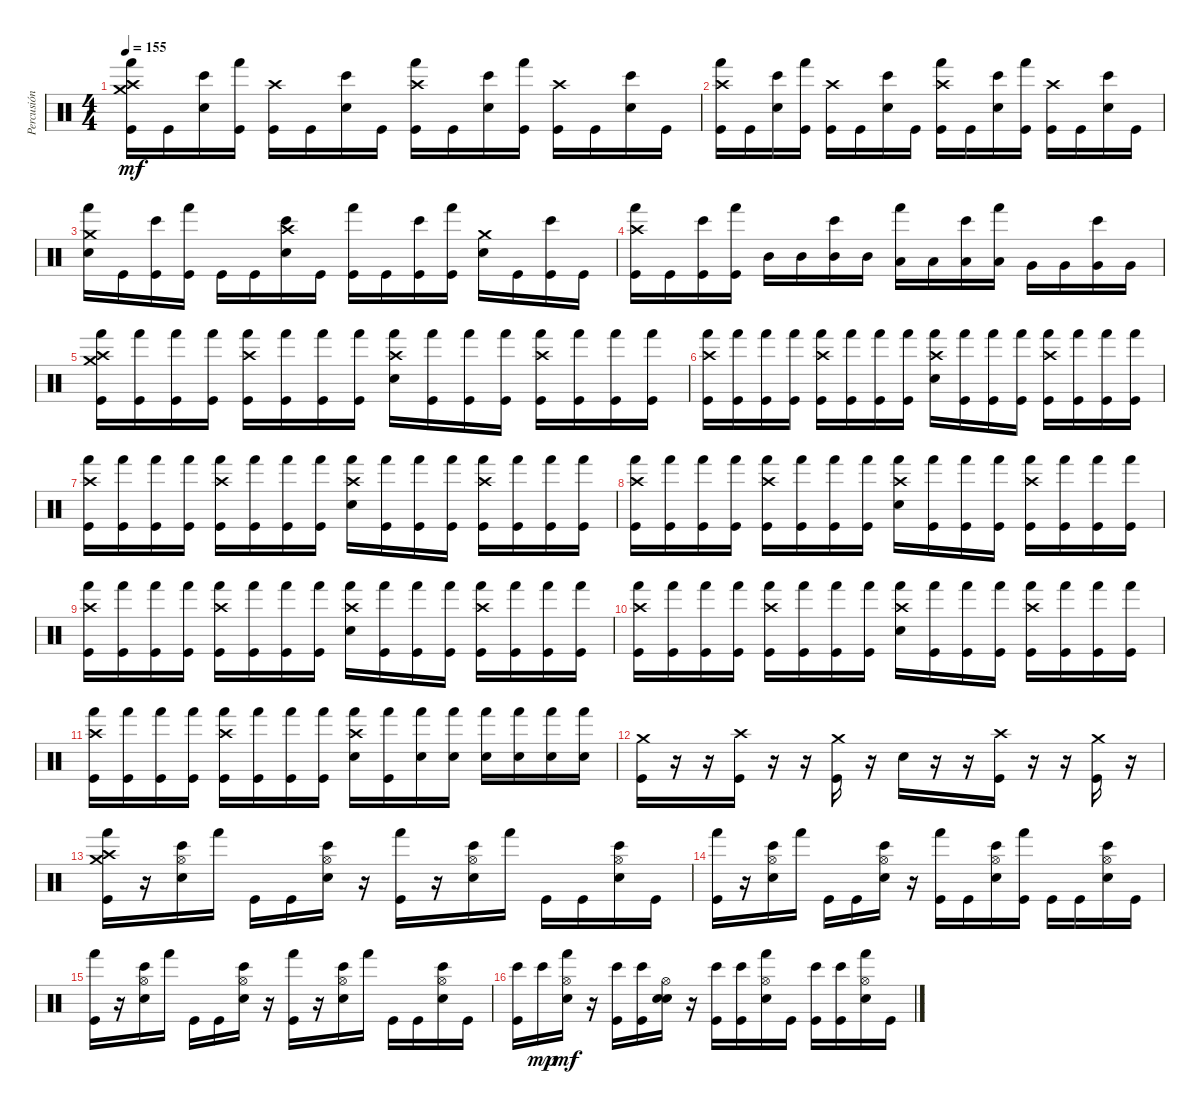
\track ("Percusión" "Percusión") {instrument percussion}
\staff {score}
\articulation defaults
\ts (4 4)
\tempo 155
\clef neutral
\ks c
("Hand (hit)" "Crash medium (hit)" "Crash high (hit)" "Kick (hit)").16{dy mf} "Kick (hit)".16 ("Bongo High (hit)" "Electric Snare (hit)").16 ("Hand (hit)" "Kick (hit)").16 ("Crash high (hit)" "Kick (hit)").16 "Kick (hit)".16 ("Bongo High (hit)" "Electric Snare (hit)").16 "Kick (hit)".16 ("Hand (hit)" "Crash high (hit)" "Kick (hit)").16 "Kick (hit)".16 ("Bongo High (hit)" "Electric Snare (hit)").16 ("Hand (hit)" "Kick (hit)").16 ("Crash high (hit)" "Kick (hit)").16 "Kick (hit)".16 ("Bongo High (hit)" "Electric Snare (hit)").16 "Kick (hit)".16 |
("Hand (hit)" "Crash high (hit)" "Kick (hit)").16 "Kick (hit)".16 ("Bongo High (hit)" "Electric Snare (hit)").16 ("Hand (hit)" "Kick (hit)").16 ("Crash high (hit)" "Kick (hit)").16 "Kick (hit)".16 ("Bongo High (hit)" "Electric Snare (hit)").16 "Kick (hit)".16 ("Hand (hit)" "Crash high (hit)" "Kick (hit)").16 "Kick (hit)".16 ("Bongo High (hit)" "Electric Snare (hit)").16 ("Hand (hit)" "Kick (hit)").16 ("Crash high (hit)" "Kick (hit)").16 "Kick (hit)".16 ("Bongo High (hit)" "Electric Snare (hit)").16 "Kick (hit)".16 |
("Hand (hit)" "Crash medium (hit)" "Electric Snare (hit)").16 "Kick (hit)".16 ("Bongo High (hit)" "Kick (hit)").16 ("Hand (hit)" "Kick (hit)").16 "Kick (hit)".16 "Kick (hit)".16 ("Bongo High (hit)" "Crash high (hit)" "Electric Snare (hit)").16 "Kick (hit)".16 ("Hand (hit)" "Kick (hit)").16 "Kick (hit)".16 ("Bongo High (hit)" "Kick (hit)").16 ("Hand (hit)" "Kick (hit)").16 ("Crash medium (hit)" "Electric Snare (hit)").16 "Kick (hit)".16 ("Bongo High (hit)" "Kick (hit)").16 "Kick (hit)".16 |
("Hand (hit)" "Crash high (hit)" "Kick (hit)").16 "Kick (hit)".16 ("Bongo High (hit)" "Kick (hit)").16 ("Hand (hit)" "Kick (hit)").16 "Mid Tom (hit)".16 "Mid Tom (hit)".16 ("Bongo High (hit)" "Mid Tom (hit)").16 "Mid Tom (hit)".16 ("Hand (hit)" "Low Tom (hit)").16 "Low Tom (hit)".16 ("Bongo High (hit)" "Low Tom (hit)").16 ("Hand (hit)" "Low Tom (hit)").16 "Very Low Tom (hit)".16 "Very Low Tom (hit)".16 ("Bongo High (hit)" "Very Low Tom (hit)").16 "Very Low Tom (hit)".16 |
("Hand (hit)" "Crash medium (hit)" "Crash high (hit)" "Kick (hit)").16 ("Hand (hit)" "Kick (hit)").16 ("Hand (hit)" "Kick (hit)").16 ("Hand (hit)" "Kick (hit)").16 ("Hand (hit)" "Crash high (hit)" "Kick (hit)").16 ("Hand (hit)" "Kick (hit)").16 ("Hand (hit)" "Kick (hit)").16 ("Hand (hit)" "Kick (hit)").16 ("Hand (hit)" "Crash high (hit)" "Electric Snare (hit)").16 ("Hand (hit)" "Kick (hit)").16 ("Hand (hit)" "Kick (hit)").16 ("Hand (hit)" "Kick (hit)").16 ("Hand (hit)" "Crash high (hit)" "Kick (hit)").16 ("Hand (hit)" "Kick (hit)").16 ("Hand (hit)" "Kick (hit)").16 ("Hand (hit)" "Kick (hit)").16 |
("Hand (hit)" "Crash high (hit)" "Kick (hit)").16 ("Hand (hit)" "Kick (hit)").16 ("Hand (hit)" "Kick (hit)").16 ("Hand (hit)" "Kick (hit)").16 ("Hand (hit)" "Crash high (hit)" "Kick (hit)").16 ("Hand (hit)" "Kick (hit)").16 ("Hand (hit)" "Kick (hit)").16 ("Hand (hit)" "Kick (hit)").16 ("Hand (hit)" "Crash high (hit)" "Electric Snare (hit)").16 ("Hand (hit)" "Kick (hit)").16 ("Hand (hit)" "Kick (hit)").16 ("Hand (hit)" "Kick (hit)").16 ("Hand (hit)" "Crash high (hit)" "Kick (hit)").16 ("Hand (hit)" "Kick (hit)").16 ("Hand (hit)" "Kick (hit)").16 ("Hand (hit)" "Kick (hit)").16 |
("Hand (hit)" "Crash high (hit)" "Kick (hit)").16 ("Hand (hit)" "Kick (hit)").16 ("Hand (hit)" "Kick (hit)").16 ("Hand (hit)" "Kick (hit)").16 ("Hand (hit)" "Crash high (hit)" "Kick (hit)").16 ("Hand (hit)" "Kick (hit)").16 ("Hand (hit)" "Kick (hit)").16 ("Hand (hit)" "Kick (hit)").16 ("Hand (hit)" "Crash high (hit)" "Electric Snare (hit)").16 ("Hand (hit)" "Kick (hit)").16 ("Hand (hit)" "Kick (hit)").16 ("Hand (hit)" "Kick (hit)").16 ("Hand (hit)" "Crash high (hit)" "Kick (hit)").16 ("Hand (hit)" "Kick (hit)").16 ("Hand (hit)" "Kick (hit)").16 ("Hand (hit)" "Kick (hit)").16 |
("Hand (hit)" "Crash high (hit)" "Kick (hit)").16 ("Hand (hit)" "Kick (hit)").16 ("Hand (hit)" "Kick (hit)").16 ("Hand (hit)" "Kick (hit)").16 ("Hand (hit)" "Crash high (hit)" "Kick (hit)").16 ("Hand (hit)" "Kick (hit)").16 ("Hand (hit)" "Kick (hit)").16 ("Hand (hit)" "Kick (hit)").16 ("Hand (hit)" "Crash high (hit)" "Electric Snare (hit)").16 ("Hand (hit)" "Kick (hit)").16 ("Hand (hit)" "Kick (hit)").16 ("Hand (hit)" "Kick (hit)").16 ("Hand (hit)" "Crash high (hit)" "Kick (hit)").16 ("Hand (hit)" "Kick (hit)").16 ("Hand (hit)" "Kick (hit)").16 ("Hand (hit)" "Kick (hit)").16 |
("Hand (hit)" "Crash high (hit)" "Kick (hit)").16 ("Hand (hit)" "Kick (hit)").16 ("Hand (hit)" "Kick (hit)").16 ("Hand (hit)" "Kick (hit)").16 ("Hand (hit)" "Crash high (hit)" "Kick (hit)").16 ("Hand (hit)" "Kick (hit)").16 ("Hand (hit)" "Kick (hit)").16 ("Hand (hit)" "Kick (hit)").16 ("Hand (hit)" "Crash high (hit)" "Electric Snare (hit)").16 ("Hand (hit)" "Kick (hit)").16 ("Hand (hit)" "Kick (hit)").16 ("Hand (hit)" "Kick (hit)").16 ("Hand (hit)" "Crash high (hit)" "Kick (hit)").16 ("Hand (hit)" "Kick (hit)").16 ("Hand (hit)" "Kick (hit)").16 ("Hand (hit)" "Kick (hit)").16 |
("Hand (hit)" "Crash high (hit)" "Kick (hit)").16 ("Hand (hit)" "Kick (hit)").16 ("Hand (hit)" "Kick (hit)").16 ("Hand (hit)" "Kick (hit)").16 ("Hand (hit)" "Crash high (hit)" "Kick (hit)").16 ("Hand (hit)" "Kick (hit)").16 ("Hand (hit)" "Kick (hit)").16 ("Hand (hit)" "Kick (hit)").16 ("Hand (hit)" "Crash high (hit)" "Electric Snare (hit)").16 ("Hand (hit)" "Kick (hit)").16 ("Hand (hit)" "Kick (hit)").16 ("Hand (hit)" "Kick (hit)").16 ("Hand (hit)" "Crash high (hit)" "Kick (hit)").16 ("Hand (hit)" "Kick (hit)").16 ("Hand (hit)" "Kick (hit)").16 ("Hand (hit)" "Kick (hit)").16 |
("Hand (hit)" "Crash high (hit)" "Kick (hit)").16 ("Hand (hit)" "Kick (hit)").16 ("Hand (hit)" "Kick (hit)").16 ("Hand (hit)" "Kick (hit)").16 ("Hand (hit)" "Crash high (hit)" "Kick (hit)").16 ("Hand (hit)" "Kick (hit)").16 ("Hand (hit)" "Kick (hit)").16 ("Hand (hit)" "Kick (hit)").16 ("Hand (hit)" "Crash high (hit)" "Electric Snare (hit)").16 ("Hand (hit)" "Kick (hit)").16 ("Hand (hit)" "Electric Snare (hit)").16 ("Hand (hit)" "Electric Snare (hit)").16 ("Hand (hit)" "Electric Snare (hit)").16 ("Hand (hit)" "Electric Snare (hit)").16 ("Hand (hit)" "Electric Snare (hit)").16 ("Hand (hit)" "Electric Snare (hit)").16 |
("Crash medium (hit)" "Kick (hit)").16 r.16 r.16 ("Crash high (hit)" "Kick (hit)").16 r.16 r.16 ("Crash medium (hit)" "Kick (hit)").16 r.16 "Electric Snare (hit)".16 r.16 r.16 ("Crash high (hit)" "Kick (hit)").16 r.16 r.16 ("Crash medium (hit)" "Kick (hit)").16 r.16 |
("Hand (hit)" "Crash medium (hit)" "Crash high (hit)" "Kick (hit)").16 r.16 ("Bongo High (hit)" "Hi-Hat (open)" "Electric Snare (hit)").16 "Hand (hit)".16 "Kick (hit)".16 "Kick (hit)".16 ("Bongo High (hit)" "Hi-Hat (open)" "Electric Snare (hit)").16 r.16 ("Hand (hit)" "Kick (hit)").16 r.16 ("Bongo High (hit)" "Hi-Hat (open)" "Electric Snare (hit)").16 "Hand (hit)".16 "Kick (hit)".16 "Kick (hit)".16 ("Bongo High (hit)" "Hi-Hat (open)" "Electric Snare (hit)").16 "Kick (hit)".16 |
("Hand (hit)" "Kick (hit)").16 r.16 ("Bongo High (hit)" "Hi-Hat (open)" "Electric Snare (hit)").16 "Hand (hit)".16 "Kick (hit)".16 "Kick (hit)".16 ("Bongo High (hit)" "Hi-Hat (open)" "Electric Snare (hit)").16 r.16 ("Hand (hit)" "Kick (hit)").16 "Kick (hit)".16 ("Bongo High (hit)" "Hi-Hat (open)" "Electric Snare (hit)").16 ("Hand (hit)" "Kick (hit)").16 "Kick (hit)".16 "Kick (hit)".16 ("Bongo High (hit)" "Hi-Hat (open)" "Electric Snare (hit)").16 "Kick (hit)".16 |
("Hand (hit)" "Kick (hit)").16 r.16 ("Bongo High (hit)" "Hi-Hat (open)" "Electric Snare (hit)").16 "Hand (hit)".16 "Kick (hit)".16 "Kick (hit)".16 ("Bongo High (hit)" "Hi-Hat (open)" "Electric Snare (hit)").16 r.16 ("Hand (hit)" "Kick (hit)").16 r.16 ("Bongo High (hit)" "Hi-Hat (open)" "Electric Snare (hit)").16 "Hand (hit)".16 "Kick (hit)".16 "Kick (hit)".16 ("Bongo High (hit)" "Hi-Hat (open)" "Electric Snare (hit)").16 "Kick (hit)".16 |
("Bongo High (hit)" "Kick (hit)").16 "Bongo High (hit)".16{dy mp} ("Hand (hit)" "Hi-Hat (open)" "Electric Snare (hit)").16{dy mf} r.16 ("Bongo High (hit)" "Kick (hit)").16 ("Bongo High (hit)" "Kick (hit)").16 ("Snare (hit)" "Hi-Hat (open)" "Electric Snare (hit)").16 r.16 ("Bongo High (hit)" "Kick (hit)").16 ("Bongo High (hit)" "Kick (hit)").16 ("Hand (hit)" "Hi-Hat (open)" "Electric Snare (hit)").16 "Kick (hit)".16 ("Bongo High (hit)" "Kick (hit)").16 ("Bongo High (hit)" "Kick (hit)").16 ("Hand (hit)" "Hi-Hat (open)" "Electric Snare (hit)").16 "Kick (hit)".16
